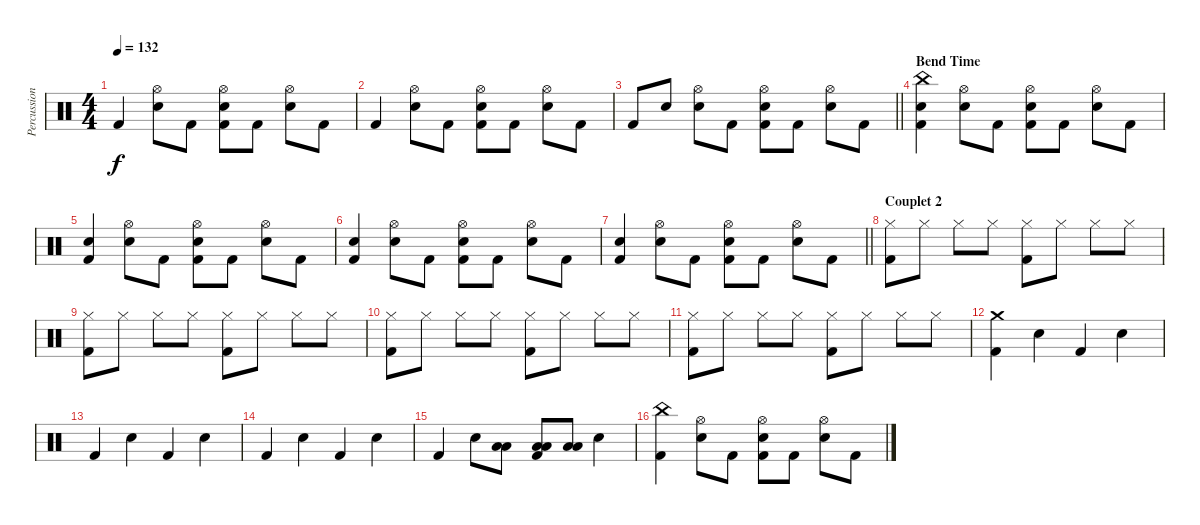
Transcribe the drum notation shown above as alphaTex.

\track ("Percussions" "Percussion") {instrument percussion}
\staff {score}
\articulation defaults
\ts (4 4)
\tempo 132
\clef neutral
\ks c "Kick (hit) 2".4{dy f}
("Electric Snare (hit)" "Hi-Hat (open)").8 "Kick (hit) 2".8 ("Kick (hit) 2" "Electric Snare (hit)" "Hi-Hat (open)").8 "Kick (hit) 2".8 ("Electric Snare (hit)" "Hi-Hat (open)").8 "Kick (hit) 2".8 |
"Kick (hit) 2".4 ("Electric Snare (hit)" "Hi-Hat (open)").8 "Kick (hit) 2".8 ("Kick (hit) 2" "Electric Snare (hit)" "Hi-Hat (open)").8 "Kick (hit) 2".8 ("Electric Snare (hit)" "Hi-Hat (open)").8 "Kick (hit) 2".8 |
\barLineRight lightlight "Kick (hit) 2".8 "Electric Snare (hit)".8
("Electric Snare (hit)" "Hi-Hat (open)").8 "Kick (hit) 2".8 ("Kick (hit) 2" "Electric Snare (hit)" "Hi-Hat (open)").8 "Kick (hit) 2".8 ("Electric Snare (hit)" "Hi-Hat (open)").8 "Kick (hit) 2".8 |
\section ("" "Bend Time")
("Kick (hit) 2" "Electric Snare (hit)" "China (hit)").4 ("Electric Snare (hit)" "Hi-Hat (open)").8 "Kick (hit) 2".8 ("Kick (hit) 2" "Electric Snare (hit)" "Hi-Hat (open)").8 "Kick (hit) 2".8 ("Electric Snare (hit)" "Hi-Hat (open)").8 "Kick (hit) 2".8 |
("Kick (hit) 2" "Electric Snare (hit)").4 ("Electric Snare (hit)" "Hi-Hat (open)").8 "Kick (hit) 2".8 ("Kick (hit) 2" "Electric Snare (hit)" "Hi-Hat (open)").8 "Kick (hit) 2".8 ("Electric Snare (hit)" "Hi-Hat (open)").8 "Kick (hit) 2".8 |
("Kick (hit) 2" "Electric Snare (hit)").4 ("Electric Snare (hit)" "Hi-Hat (open)").8 "Kick (hit) 2".8 ("Kick (hit) 2" "Electric Snare (hit)" "Hi-Hat (open)").8 "Kick (hit) 2".8 ("Electric Snare (hit)" "Hi-Hat (open)").8 "Kick (hit) 2".8 |
\barLineRight lightlight
("Kick (hit) 2" "Electric Snare (hit)").4 ("Electric Snare (hit)" "Hi-Hat (open)").8 "Kick (hit) 2".8 ("Kick (hit) 2" "Electric Snare (hit)" "Hi-Hat (open)").8 "Kick (hit) 2".8 ("Electric Snare (hit)" "Hi-Hat (open)").8 "Kick (hit) 2".8 |
\section ("" "Couplet 2")
("Kick (hit) 2" "Hi-Hat (closed)").8 "Hi-Hat (closed)".8 "Hi-Hat (closed)".8 "Hi-Hat (closed)".8 ("Kick (hit) 2" "Hi-Hat (closed)").8 "Hi-Hat (closed)".8 "Hi-Hat (closed)".8 "Hi-Hat (closed)".8 |
("Kick (hit) 2" "Hi-Hat (closed)").8 "Hi-Hat (closed)".8 "Hi-Hat (closed)".8 "Hi-Hat (closed)".8 ("Kick (hit) 2" "Hi-Hat (closed)").8 "Hi-Hat (closed)".8 "Hi-Hat (closed)".8 "Hi-Hat (closed)".8 |
("Kick (hit) 2" "Hi-Hat (closed)").8 "Hi-Hat (closed)".8 "Hi-Hat (closed)".8 "Hi-Hat (closed)".8 ("Kick (hit) 2" "Hi-Hat (closed)").8 "Hi-Hat (closed)".8 "Hi-Hat (closed)".8 "Hi-Hat (closed)".8 |
("Kick (hit) 2" "Hi-Hat (closed)").8 "Hi-Hat (closed)".8 "Hi-Hat (closed)".8 "Hi-Hat (closed)".8 ("Kick (hit) 2" "Hi-Hat (closed)").8 "Hi-Hat (closed)".8 "Hi-Hat (closed)".8 "Hi-Hat (closed)".8 |
("Kick (hit) 2" "Crash medium (hit)").4 "Electric Snare (hit)".4 "Kick (hit) 2".4 "Electric Snare (hit)".4 |
"Kick (hit) 2".4 "Electric Snare (hit)".4 "Kick (hit) 2".4 "Electric Snare (hit)".4 |
"Kick (hit) 2".4 "Electric Snare (hit)".4 "Kick (hit) 2".4 "Electric Snare (hit)".4 |
"Kick (hit) 2".4 "Electric Snare (hit)".8 ("Low Tom (hit)" "Low Floor Tom (hit)").8 ("Kick (hit) 2" "Low Tom (hit)" "Low Floor Tom (hit)").8 ("Low Tom (hit)" "Low Floor Tom (hit)").8 "Electric Snare (hit)".4 |
("Kick (hit) 2" "China (hit)").4 ("Electric Snare (hit)" "Hi-Hat (open)").8 "Kick (hit) 2".8 ("Kick (hit) 2" "Electric Snare (hit)" "Hi-Hat (open)").8 "Kick (hit) 2".8 ("Electric Snare (hit)" "Hi-Hat (open)").8 "Kick (hit) 2".8
